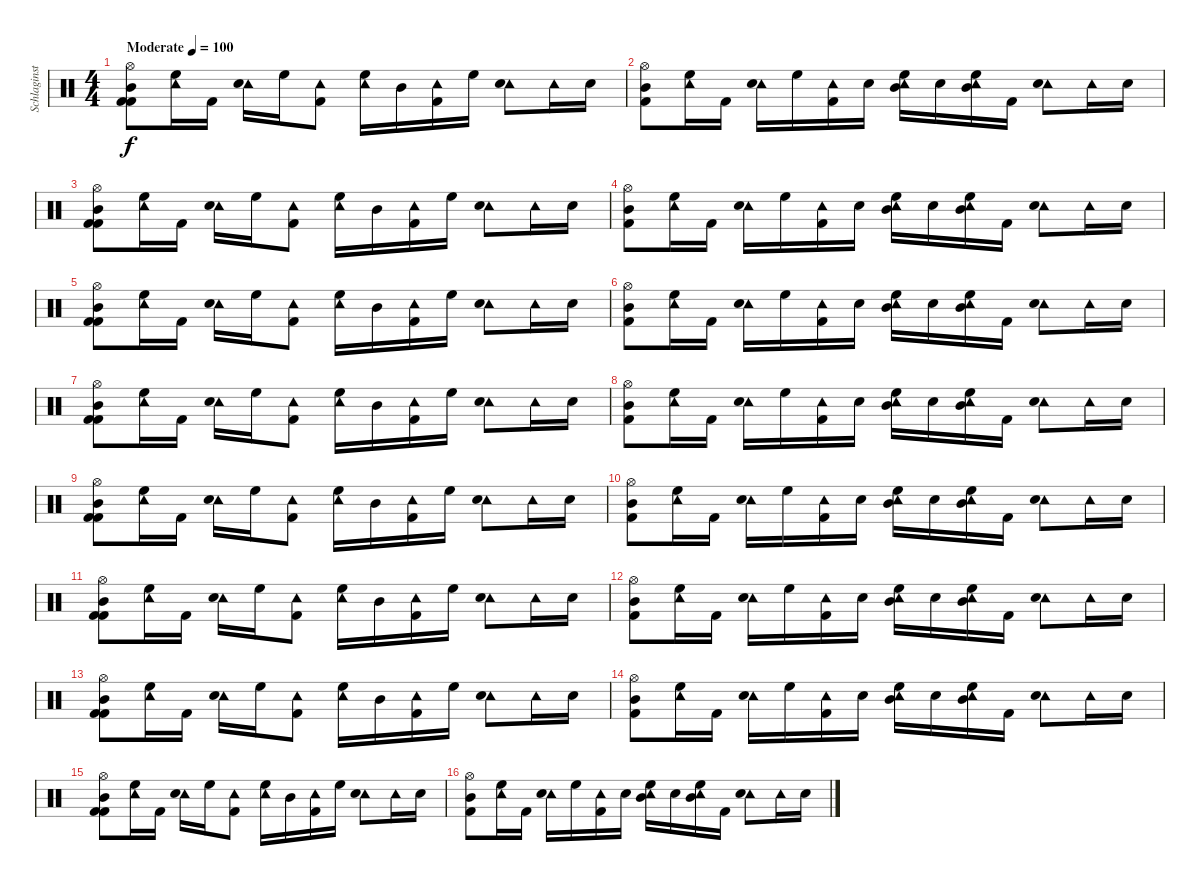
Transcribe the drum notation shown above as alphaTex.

\track ("Schlaginstrumente - Auswahl" "Schlaginst") {instrument percussion}
\staff {score}
\articulation defaults
\ts (4 4)
\tempo (100 "Moderate")
\clef neutral
\ks c
("Hi-Hat (open)" "Kick (hit) 2" "Mid Tom (hit)" "Kick (hit) 2").8{dy f} ("Tambourine (hit)" "High Floor Tom (hit)").16 "Kick (hit) 2".16 ("Tambourine (hit)" "Snare (hit) 2").16 "High Floor Tom (hit)".16 ("Tambourine (hit)" "Kick (hit) 2").8 ("Tambourine (hit)" "High Floor Tom (hit)").16 "Mid Tom (hit)".16 ("Tambourine (hit)" "Kick (hit) 2").16 "High Floor Tom (hit)".16 ("Tambourine (hit)" "Snare (hit) 2").8 "Tambourine (hit)".16 "Snare (hit) 2".16 |
("Hi-Hat (open)" "Mid Tom (hit)" "Kick (hit) 2").8 ("Tambourine (hit)" "High Floor Tom (hit)").16 "Kick (hit) 2".16 ("Tambourine (hit)" "Snare (hit) 2").16 "High Floor Tom (hit)".16 ("Tambourine (hit)" "Kick (hit) 2").16 "Electric Snare (hit)".16 ("Tambourine (hit)" "High Floor Tom (hit)" "Mid Tom (hit)").16 "Electric Snare (hit)".16 ("Tambourine (hit)" "High Floor Tom (hit)" "Mid Tom (hit)").16 "Kick (hit) 2".16 ("Tambourine (hit)" "Snare (hit) 2").8 "Tambourine (hit)".16 "Snare (hit) 2".16 |
("Hi-Hat (open)" "Kick (hit) 2" "Mid Tom (hit)" "Kick (hit) 2").8 ("Tambourine (hit)" "High Floor Tom (hit)").16 "Kick (hit) 2".16 ("Tambourine (hit)" "Snare (hit) 2").16 "High Floor Tom (hit)".16 ("Tambourine (hit)" "Kick (hit) 2").8 ("Tambourine (hit)" "High Floor Tom (hit)").16 "Mid Tom (hit)".16 ("Tambourine (hit)" "Kick (hit) 2").16 "High Floor Tom (hit)".16 ("Tambourine (hit)" "Snare (hit) 2").8 "Tambourine (hit)".16 "Snare (hit) 2".16 |
("Hi-Hat (open)" "Mid Tom (hit)" "Kick (hit) 2").8 ("Tambourine (hit)" "High Floor Tom (hit)").16 "Kick (hit) 2".16 ("Tambourine (hit)" "Snare (hit) 2").16 "High Floor Tom (hit)".16 ("Tambourine (hit)" "Kick (hit) 2").16 "Electric Snare (hit)".16 ("Tambourine (hit)" "High Floor Tom (hit)" "Mid Tom (hit)").16 "Electric Snare (hit)".16 ("Tambourine (hit)" "High Floor Tom (hit)" "Mid Tom (hit)").16 "Kick (hit) 2".16 ("Tambourine (hit)" "Snare (hit) 2").8 "Tambourine (hit)".16 "Snare (hit) 2".16 |
("Hi-Hat (open)" "Kick (hit) 2" "Mid Tom (hit)" "Kick (hit) 2").8 ("Tambourine (hit)" "High Floor Tom (hit)").16 "Kick (hit) 2".16 ("Tambourine (hit)" "Snare (hit) 2").16 "High Floor Tom (hit)".16 ("Tambourine (hit)" "Kick (hit) 2").8 ("Tambourine (hit)" "High Floor Tom (hit)").16 "Mid Tom (hit)".16 ("Tambourine (hit)" "Kick (hit) 2").16 "High Floor Tom (hit)".16 ("Tambourine (hit)" "Snare (hit) 2").8 "Tambourine (hit)".16 "Snare (hit) 2".16 |
("Hi-Hat (open)" "Mid Tom (hit)" "Kick (hit) 2").8 ("Tambourine (hit)" "High Floor Tom (hit)").16 "Kick (hit) 2".16 ("Tambourine (hit)" "Snare (hit) 2").16 "High Floor Tom (hit)".16 ("Tambourine (hit)" "Kick (hit) 2").16 "Electric Snare (hit)".16 ("Tambourine (hit)" "High Floor Tom (hit)" "Mid Tom (hit)").16 "Electric Snare (hit)".16 ("Tambourine (hit)" "High Floor Tom (hit)" "Mid Tom (hit)").16 "Kick (hit) 2".16 ("Tambourine (hit)" "Snare (hit) 2").8 "Tambourine (hit)".16 "Snare (hit) 2".16 |
("Hi-Hat (open)" "Kick (hit) 2" "Mid Tom (hit)" "Kick (hit) 2").8 ("Tambourine (hit)" "High Floor Tom (hit)").16 "Kick (hit) 2".16 ("Tambourine (hit)" "Snare (hit) 2").16 "High Floor Tom (hit)".16 ("Tambourine (hit)" "Kick (hit) 2").8 ("Tambourine (hit)" "High Floor Tom (hit)").16 "Mid Tom (hit)".16 ("Tambourine (hit)" "Kick (hit) 2").16 "High Floor Tom (hit)".16 ("Tambourine (hit)" "Snare (hit) 2").8 "Tambourine (hit)".16 "Snare (hit) 2".16 |
("Hi-Hat (open)" "Mid Tom (hit)" "Kick (hit) 2").8 ("Tambourine (hit)" "High Floor Tom (hit)").16 "Kick (hit) 2".16 ("Tambourine (hit)" "Snare (hit) 2").16 "High Floor Tom (hit)".16 ("Tambourine (hit)" "Kick (hit) 2").16 "Electric Snare (hit)".16 ("Tambourine (hit)" "High Floor Tom (hit)" "Mid Tom (hit)").16 "Electric Snare (hit)".16 ("Tambourine (hit)" "High Floor Tom (hit)" "Mid Tom (hit)").16 "Kick (hit) 2".16 ("Tambourine (hit)" "Snare (hit) 2").8 "Tambourine (hit)".16 "Snare (hit) 2".16 |
("Hi-Hat (open)" "Kick (hit) 2" "Mid Tom (hit)" "Kick (hit) 2").8 ("Tambourine (hit)" "High Floor Tom (hit)").16 "Kick (hit) 2".16 ("Tambourine (hit)" "Snare (hit) 2").16 "High Floor Tom (hit)".16 ("Tambourine (hit)" "Kick (hit) 2").8 ("Tambourine (hit)" "High Floor Tom (hit)").16 "Mid Tom (hit)".16 ("Tambourine (hit)" "Kick (hit) 2").16 "High Floor Tom (hit)".16 ("Tambourine (hit)" "Snare (hit) 2").8 "Tambourine (hit)".16 "Snare (hit) 2".16 |
("Hi-Hat (open)" "Mid Tom (hit)" "Kick (hit) 2").8 ("Tambourine (hit)" "High Floor Tom (hit)").16 "Kick (hit) 2".16 ("Tambourine (hit)" "Snare (hit) 2").16 "High Floor Tom (hit)".16 ("Tambourine (hit)" "Kick (hit) 2").16 "Electric Snare (hit)".16 ("Tambourine (hit)" "High Floor Tom (hit)" "Mid Tom (hit)").16 "Electric Snare (hit)".16 ("Tambourine (hit)" "High Floor Tom (hit)" "Mid Tom (hit)").16 "Kick (hit) 2".16 ("Tambourine (hit)" "Snare (hit) 2").8 "Tambourine (hit)".16 "Snare (hit) 2".16 |
("Hi-Hat (open)" "Kick (hit) 2" "Mid Tom (hit)" "Kick (hit) 2").8 ("Tambourine (hit)" "High Floor Tom (hit)").16 "Kick (hit) 2".16 ("Tambourine (hit)" "Snare (hit) 2").16 "High Floor Tom (hit)".16 ("Tambourine (hit)" "Kick (hit) 2").8 ("Tambourine (hit)" "High Floor Tom (hit)").16 "Mid Tom (hit)".16 ("Tambourine (hit)" "Kick (hit) 2").16 "High Floor Tom (hit)".16 ("Tambourine (hit)" "Snare (hit) 2").8 "Tambourine (hit)".16 "Snare (hit) 2".16 |
("Hi-Hat (open)" "Mid Tom (hit)" "Kick (hit) 2").8 ("Tambourine (hit)" "High Floor Tom (hit)").16 "Kick (hit) 2".16 ("Tambourine (hit)" "Snare (hit) 2").16 "High Floor Tom (hit)".16 ("Tambourine (hit)" "Kick (hit) 2").16 "Electric Snare (hit)".16 ("Tambourine (hit)" "High Floor Tom (hit)" "Mid Tom (hit)").16 "Electric Snare (hit)".16 ("Tambourine (hit)" "High Floor Tom (hit)" "Mid Tom (hit)").16 "Kick (hit) 2".16 ("Tambourine (hit)" "Snare (hit) 2").8 "Tambourine (hit)".16 "Snare (hit) 2".16 |
("Hi-Hat (open)" "Kick (hit) 2" "Mid Tom (hit)" "Kick (hit) 2").8 ("Tambourine (hit)" "High Floor Tom (hit)").16 "Kick (hit) 2".16 ("Tambourine (hit)" "Snare (hit) 2").16 "High Floor Tom (hit)".16 ("Tambourine (hit)" "Kick (hit) 2").8 ("Tambourine (hit)" "High Floor Tom (hit)").16 "Mid Tom (hit)".16 ("Tambourine (hit)" "Kick (hit) 2").16 "High Floor Tom (hit)".16 ("Tambourine (hit)" "Snare (hit) 2").8 "Tambourine (hit)".16 "Snare (hit) 2".16 |
("Hi-Hat (open)" "Mid Tom (hit)" "Kick (hit) 2").8 ("Tambourine (hit)" "High Floor Tom (hit)").16 "Kick (hit) 2".16 ("Tambourine (hit)" "Snare (hit) 2").16 "High Floor Tom (hit)".16 ("Tambourine (hit)" "Kick (hit) 2").16 "Electric Snare (hit)".16 ("Tambourine (hit)" "High Floor Tom (hit)" "Mid Tom (hit)").16 "Electric Snare (hit)".16 ("Tambourine (hit)" "High Floor Tom (hit)" "Mid Tom (hit)").16 "Kick (hit) 2".16 ("Tambourine (hit)" "Snare (hit) 2").8 "Tambourine (hit)".16 "Snare (hit) 2".16 |
("Hi-Hat (open)" "Kick (hit) 2" "Mid Tom (hit)" "Kick (hit) 2").8 ("Tambourine (hit)" "High Floor Tom (hit)").16 "Kick (hit) 2".16 ("Tambourine (hit)" "Snare (hit) 2").16 "High Floor Tom (hit)".16 ("Tambourine (hit)" "Kick (hit) 2").8 ("Tambourine (hit)" "High Floor Tom (hit)").16 "Mid Tom (hit)".16 ("Tambourine (hit)" "Kick (hit) 2").16 "High Floor Tom (hit)".16 ("Tambourine (hit)" "Snare (hit) 2").8 "Tambourine (hit)".16 "Snare (hit) 2".16 |
("Hi-Hat (open)" "Mid Tom (hit)" "Kick (hit) 2").8 ("Tambourine (hit)" "High Floor Tom (hit)").16 "Kick (hit) 2".16 ("Tambourine (hit)" "Snare (hit) 2").16 "High Floor Tom (hit)".16 ("Tambourine (hit)" "Kick (hit) 2").16 "Electric Snare (hit)".16 ("Tambourine (hit)" "High Floor Tom (hit)" "Mid Tom (hit)").16 "Electric Snare (hit)".16 ("Tambourine (hit)" "High Floor Tom (hit)" "Mid Tom (hit)").16 "Kick (hit) 2".16 ("Tambourine (hit)" "Snare (hit) 2").8 "Tambourine (hit)".16 "Snare (hit) 2".16
